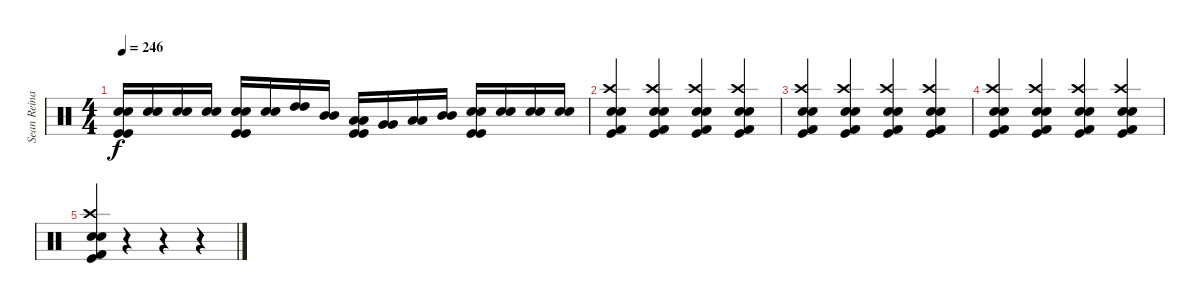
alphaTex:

\track ("Sean Reinart" "Sean Reina") {instrument percussion}
\staff {score}
\articulation defaults
\ts (4 4)
\tempo 246
\clef neutral
\ks c
("Snare (hit) 2" "Electric Snare (hit)" "Kick (hit)" "Kick (hit)").16{dy f} ("Snare (hit) 2" "Electric Snare (hit)").16 ("Snare (hit) 2" "Electric Snare (hit)").16 ("Snare (hit) 2" "Electric Snare (hit)").16 ("Snare (hit) 2" "Electric Snare (hit)" "Kick (hit)" "Kick (hit)").16 ("Snare (hit) 2" "Electric Snare (hit)").16 ("High Tom (hit)" "High Tom (hit)").16 ("Mid Tom (hit)" "Mid Tom (hit)").16 ("Low Tom (hit)" "Low Tom (hit)" "Kick (hit)" "Kick (hit)").16 ("Very Low Tom (hit)" "Very Low Tom (hit)").16 ("Low Tom (hit)" "Low Tom (hit)").16 ("Mid Tom (hit)" "Mid Tom (hit)").16 ("Snare (hit) 2" "Electric Snare (hit)" "Kick (hit)" "Kick (hit)").16 ("Snare (hit) 2" "Electric Snare (hit)").16 ("Snare (hit) 2" "Electric Snare (hit)").16 ("Snare (hit) 2" "Electric Snare (hit)").16 |
("Crash high (hit)" "Snare (hit) 2" "Electric Snare (hit)" "Kick (hit)" "Kick (hit) 2").4 ("Crash high (hit)" "Snare (hit) 2" "Electric Snare (hit)" "Kick (hit)" "Kick (hit) 2").4 ("Crash high (hit)" "Snare (hit) 2" "Electric Snare (hit)" "Kick (hit)" "Kick (hit) 2").4 ("Crash high (hit)" "Snare (hit) 2" "Electric Snare (hit)" "Kick (hit)" "Kick (hit) 2").4 |
("Crash high (hit)" "Snare (hit) 2" "Electric Snare (hit)" "Kick (hit)" "Kick (hit) 2").4 ("Crash high (hit)" "Snare (hit) 2" "Electric Snare (hit)" "Kick (hit)" "Kick (hit) 2").4 ("Crash high (hit)" "Snare (hit) 2" "Electric Snare (hit)" "Kick (hit)" "Kick (hit) 2").4 ("Crash high (hit)" "Snare (hit) 2" "Electric Snare (hit)" "Kick (hit)" "Kick (hit) 2").4 |
("Crash high (hit)" "Snare (hit) 2" "Electric Snare (hit)" "Kick (hit)" "Kick (hit) 2").4 ("Crash high (hit)" "Snare (hit) 2" "Electric Snare (hit)" "Kick (hit)" "Kick (hit) 2").4 ("Crash high (hit)" "Snare (hit) 2" "Electric Snare (hit)" "Kick (hit)" "Kick (hit) 2").4 ("Crash high (hit)" "Snare (hit) 2" "Electric Snare (hit)" "Kick (hit)" "Kick (hit) 2").4 |
("Crash high (hit)" "Snare (hit) 2" "Electric Snare (hit)" "Kick (hit)" "Kick (hit) 2").4 r.4 r.4 r.4
